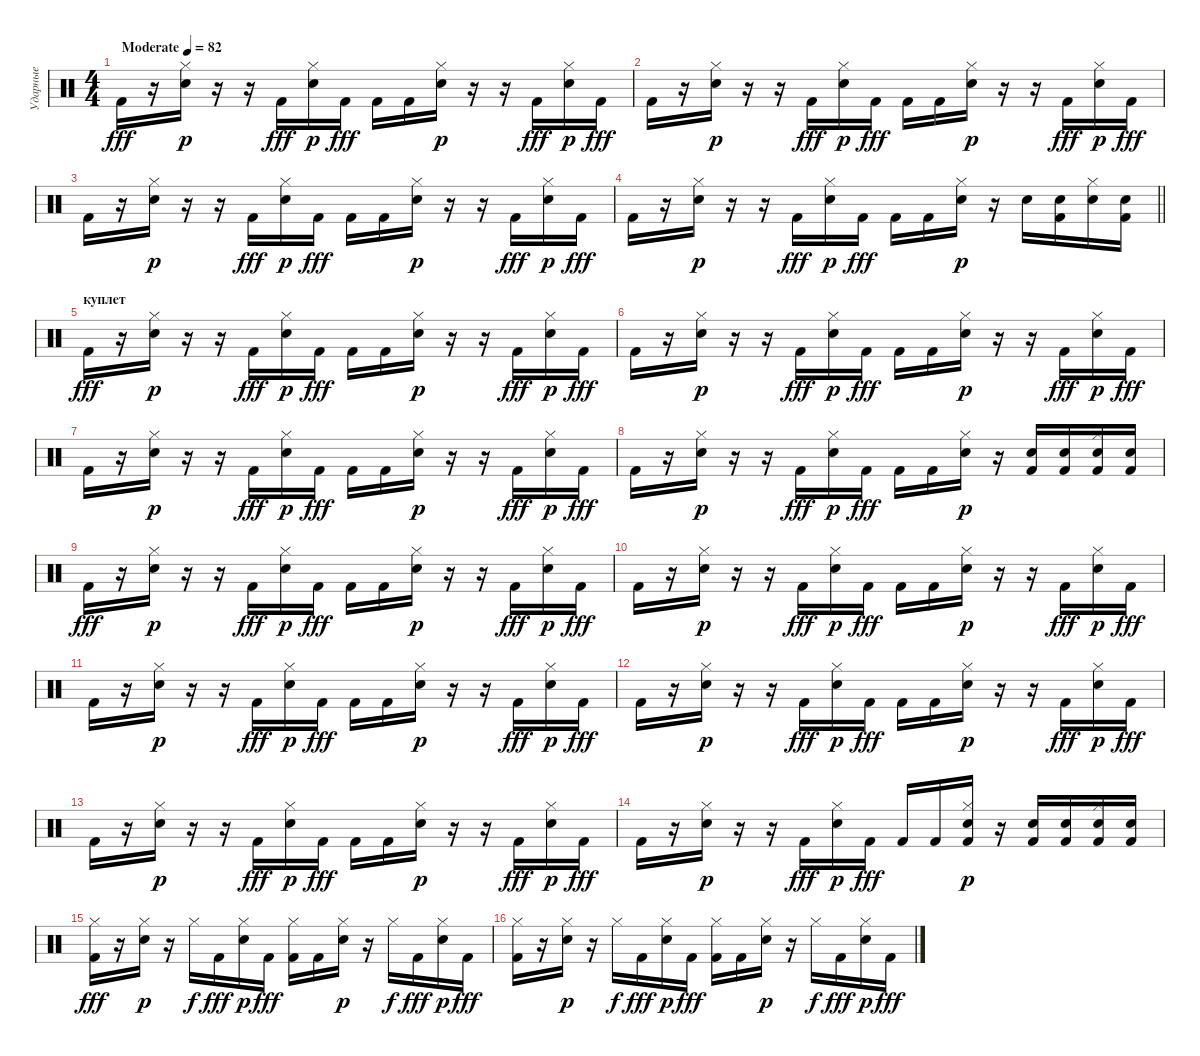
\track ("Ударные" "Ударные") {instrument percussion}
\staff {score}
\articulation defaults
\ts (4 4)
\tempo (82 "Moderate")
\clef neutral
\ks c "Kick (hit) 2".16{dy fff}
r.16 ("Hi-Hat (closed)" "Electric Snare (hit)").16{dy p} r.16 r.16 "Kick (hit) 2".16{dy fff} ("Hi-Hat (closed)" "Electric Snare (hit)").16{dy p} "Kick (hit) 2".16{dy fff} "Kick (hit) 2".16 "Kick (hit) 2".16 ("Hi-Hat (closed)" "Electric Snare (hit)").16{dy p} r.16 r.16 "Kick (hit) 2".16{dy fff} ("Hi-Hat (closed)" "Electric Snare (hit)").16{dy p} "Kick (hit) 2".16{dy fff} |
"Kick (hit) 2".16 r.16 ("Hi-Hat (closed)" "Electric Snare (hit)").16{dy p} r.16 r.16 "Kick (hit) 2".16{dy fff} ("Hi-Hat (closed)" "Electric Snare (hit)").16{dy p} "Kick (hit) 2".16{dy fff} "Kick (hit) 2".16 "Kick (hit) 2".16 ("Hi-Hat (closed)" "Electric Snare (hit)").16{dy p} r.16 r.16 "Kick (hit) 2".16{dy fff} ("Hi-Hat (closed)" "Electric Snare (hit)").16{dy p} "Kick (hit) 2".16{dy fff} |
"Kick (hit) 2".16 r.16 ("Hi-Hat (closed)" "Electric Snare (hit)").16{dy p} r.16 r.16 "Kick (hit) 2".16{dy fff} ("Hi-Hat (closed)" "Electric Snare (hit)").16{dy p} "Kick (hit) 2".16{dy fff} "Kick (hit) 2".16 "Kick (hit) 2".16 ("Hi-Hat (closed)" "Electric Snare (hit)").16{dy p} r.16 r.16 "Kick (hit) 2".16{dy fff} ("Hi-Hat (closed)" "Electric Snare (hit)").16{dy p} "Kick (hit) 2".16{dy fff} |
\barLineRight lightlight "Kick (hit) 2".16
r.16 ("Hi-Hat (closed)" "Electric Snare (hit)").16{dy p} r.16 r.16 "Kick (hit) 2".16{dy fff} ("Hi-Hat (closed)" "Electric Snare (hit)").16{dy p} "Kick (hit) 2".16{dy fff} "Kick (hit) 2".16 "Kick (hit) 2".16 ("Hi-Hat (closed)" "Electric Snare (hit)").16{dy p} r.16 "Electric Snare (hit)".16 ("Kick (hit) 2" "Electric Snare (hit)").16 ("Hi-Hat (closed)" "Electric Snare (hit)").16 ("Kick (hit) 2" "Electric Snare (hit)").16 |
\section ("" "куплет")
"Kick (hit) 2".16{dy fff} r.16 ("Hi-Hat (closed)" "Electric Snare (hit)").16{dy p} r.16 r.16 "Kick (hit) 2".16{dy fff} ("Hi-Hat (closed)" "Electric Snare (hit)").16{dy p} "Kick (hit) 2".16{dy fff} "Kick (hit) 2".16 "Kick (hit) 2".16 ("Hi-Hat (closed)" "Electric Snare (hit)").16{dy p} r.16 r.16 "Kick (hit) 2".16{dy fff} ("Hi-Hat (closed)" "Electric Snare (hit)").16{dy p} "Kick (hit) 2".16{dy fff} |
"Kick (hit) 2".16 r.16 ("Hi-Hat (closed)" "Electric Snare (hit)").16{dy p} r.16 r.16 "Kick (hit) 2".16{dy fff} ("Hi-Hat (closed)" "Electric Snare (hit)").16{dy p} "Kick (hit) 2".16{dy fff} "Kick (hit) 2".16 "Kick (hit) 2".16 ("Hi-Hat (closed)" "Electric Snare (hit)").16{dy p} r.16 r.16 "Kick (hit) 2".16{dy fff} ("Hi-Hat (closed)" "Electric Snare (hit)").16{dy p} "Kick (hit) 2".16{dy fff} |
"Kick (hit) 2".16 r.16 ("Hi-Hat (closed)" "Electric Snare (hit)").16{dy p} r.16 r.16 "Kick (hit) 2".16{dy fff} ("Hi-Hat (closed)" "Electric Snare (hit)").16{dy p} "Kick (hit) 2".16{dy fff} "Kick (hit) 2".16 "Kick (hit) 2".16 ("Hi-Hat (closed)" "Electric Snare (hit)").16{dy p} r.16 r.16 "Kick (hit) 2".16{dy fff} ("Hi-Hat (closed)" "Electric Snare (hit)").16{dy p} "Kick (hit) 2".16{dy fff} |
"Kick (hit) 2".16 r.16 ("Hi-Hat (closed)" "Electric Snare (hit)").16{dy p} r.16 r.16 "Kick (hit) 2".16{dy fff} ("Hi-Hat (closed)" "Electric Snare (hit)").16{dy p} "Kick (hit) 2".16{dy fff} "Kick (hit) 2".16 "Kick (hit) 2".16 ("Hi-Hat (closed)" "Electric Snare (hit)").16{dy p} r.16 ("Kick (hit) 2" "Electric Snare (hit)").16 ("Kick (hit) 2" "Electric Snare (hit)").16 ("Kick (hit) 2" "Hi-Hat (closed)" "Electric Snare (hit)").16 ("Kick (hit) 2" "Electric Snare (hit)").16 |
"Kick (hit) 2".16{dy fff} r.16 ("Hi-Hat (closed)" "Electric Snare (hit)").16{dy p} r.16 r.16 "Kick (hit) 2".16{dy fff} ("Hi-Hat (closed)" "Electric Snare (hit)").16{dy p} "Kick (hit) 2".16{dy fff} "Kick (hit) 2".16 "Kick (hit) 2".16 ("Hi-Hat (closed)" "Electric Snare (hit)").16{dy p} r.16 r.16 "Kick (hit) 2".16{dy fff} ("Hi-Hat (closed)" "Electric Snare (hit)").16{dy p} "Kick (hit) 2".16{dy fff} |
"Kick (hit) 2".16 r.16 ("Hi-Hat (closed)" "Electric Snare (hit)").16{dy p} r.16 r.16 "Kick (hit) 2".16{dy fff} ("Hi-Hat (closed)" "Electric Snare (hit)").16{dy p} "Kick (hit) 2".16{dy fff} "Kick (hit) 2".16 "Kick (hit) 2".16 ("Hi-Hat (closed)" "Electric Snare (hit)").16{dy p} r.16 r.16 "Kick (hit) 2".16{dy fff} ("Hi-Hat (closed)" "Electric Snare (hit)").16{dy p} "Kick (hit) 2".16{dy fff} |
"Kick (hit) 2".16 r.16 ("Hi-Hat (closed)" "Electric Snare (hit)").16{dy p} r.16 r.16 "Kick (hit) 2".16{dy fff} ("Hi-Hat (closed)" "Electric Snare (hit)").16{dy p} "Kick (hit) 2".16{dy fff} "Kick (hit) 2".16 "Kick (hit) 2".16 ("Hi-Hat (closed)" "Electric Snare (hit)").16{dy p} r.16 r.16 "Kick (hit) 2".16{dy fff} ("Hi-Hat (closed)" "Electric Snare (hit)").16{dy p} "Kick (hit) 2".16{dy fff} |
"Kick (hit) 2".16 r.16 ("Hi-Hat (closed)" "Electric Snare (hit)").16{dy p} r.16 r.16 "Kick (hit) 2".16{dy fff} ("Hi-Hat (closed)" "Electric Snare (hit)").16{dy p} "Kick (hit) 2".16{dy fff} "Kick (hit) 2".16 "Kick (hit) 2".16 ("Hi-Hat (closed)" "Electric Snare (hit)").16{dy p} r.16 r.16 "Kick (hit) 2".16{dy fff} ("Hi-Hat (closed)" "Electric Snare (hit)").16{dy p} "Kick (hit) 2".16{dy fff} |
"Kick (hit) 2".16 r.16 ("Hi-Hat (closed)" "Electric Snare (hit)").16{dy p} r.16 r.16 "Kick (hit) 2".16{dy fff} ("Hi-Hat (closed)" "Electric Snare (hit)").16{dy p} "Kick (hit) 2".16{dy fff} "Kick (hit) 2".16 "Kick (hit) 2".16 ("Hi-Hat (closed)" "Electric Snare (hit)").16{dy p} r.16 r.16 "Kick (hit) 2".16{dy fff} ("Hi-Hat (closed)" "Electric Snare (hit)").16{dy p} "Kick (hit) 2".16{dy fff} |
"Kick (hit) 2".16 r.16 ("Hi-Hat (closed)" "Electric Snare (hit)").16{dy p} r.16 r.16 "Kick (hit) 2".16{dy fff} ("Hi-Hat (closed)" "Electric Snare (hit)").16{dy p} "Kick (hit) 2".16{dy fff} "Kick (hit) 2".16 "Kick (hit) 2".16 ("Kick (hit) 2" "Hi-Hat (closed)" "Electric Snare (hit)").16{dy p} r.16 ("Kick (hit) 2" "Electric Snare (hit)").16 ("Kick (hit) 2" "Electric Snare (hit)").16 ("Kick (hit) 2" "Hi-Hat (closed)" "Electric Snare (hit)").16 ("Kick (hit) 2" "Electric Snare (hit)").16 |
("Kick (hit) 2" "Hi-Hat (closed)").16{dy fff} r.16 ("Hi-Hat (closed)" "Electric Snare (hit)").16{dy p} r.16 "Hi-Hat (closed)".16{dy f} "Kick (hit) 2".16{dy fff} ("Hi-Hat (closed)" "Electric Snare (hit)").16{dy p} "Kick (hit) 2".16{dy fff} ("Kick (hit) 2" "Hi-Hat (closed)").16 "Kick (hit) 2".16 ("Hi-Hat (closed)" "Electric Snare (hit)").16{dy p} r.16 "Hi-Hat (closed)".16{dy f} "Kick (hit) 2".16{dy fff} ("Hi-Hat (closed)" "Electric Snare (hit)").16{dy p} "Kick (hit) 2".16{dy fff} |
("Kick (hit) 2" "Hi-Hat (closed)").16 r.16 ("Hi-Hat (closed)" "Electric Snare (hit)").16{dy p} r.16 "Hi-Hat (closed)".16{dy f} "Kick (hit) 2".16{dy fff} ("Hi-Hat (closed)" "Electric Snare (hit)").16{dy p} "Kick (hit) 2".16{dy fff} ("Kick (hit) 2" "Hi-Hat (closed)").16 "Kick (hit) 2".16 ("Hi-Hat (closed)" "Electric Snare (hit)").16{dy p} r.16 "Hi-Hat (closed)".16{dy f} "Kick (hit) 2".16{dy fff} ("Hi-Hat (closed)" "Electric Snare (hit)").16{dy p} "Kick (hit) 2".16{dy fff}
